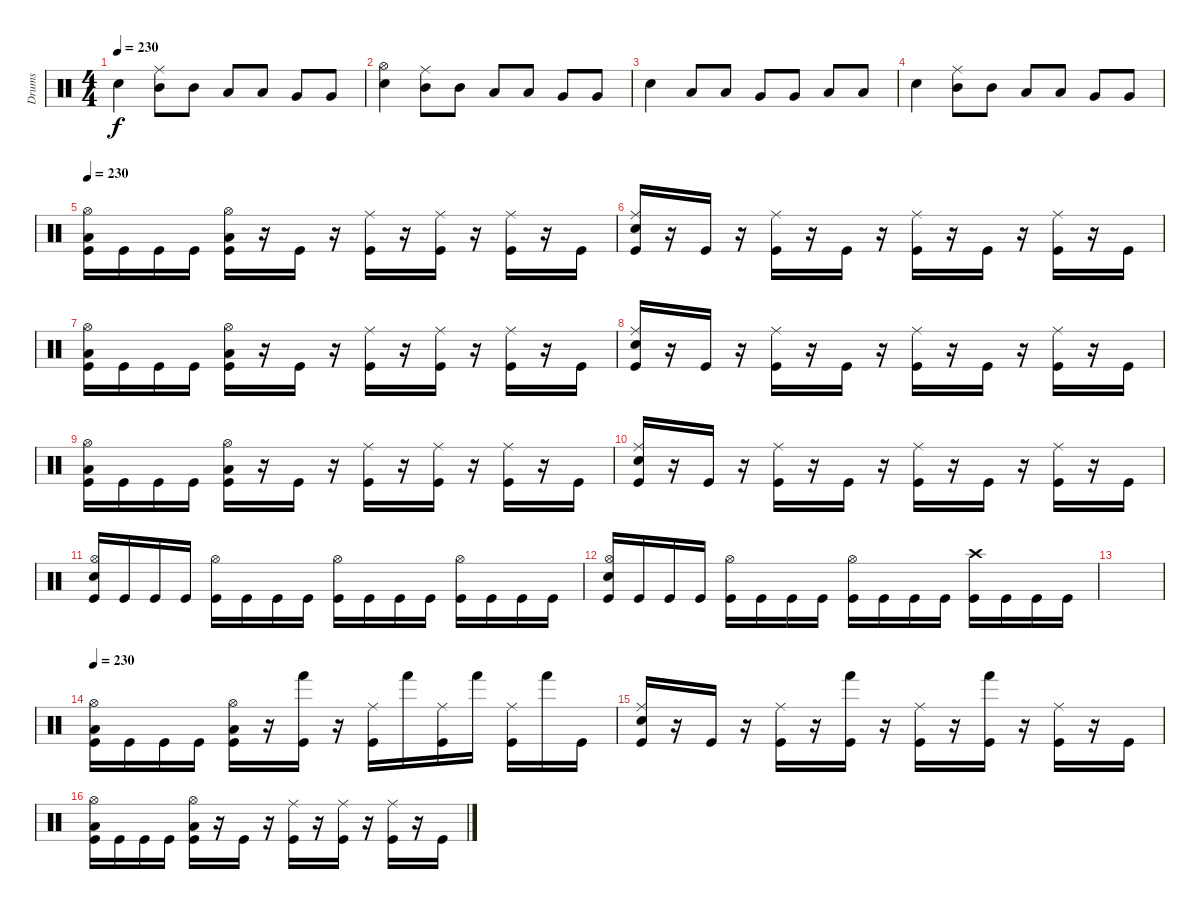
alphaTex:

\track ("Drums" "Drums") {instrument percussion}
\staff {score}
\articulation defaults
\ts (4 4)
\tempo 230
\clef neutral
\ks c "Electric Snare (hit)".4{dy f}
("Ride (middle)" "Mid Tom (hit)").8 "Mid Tom (hit)".8 "Low Tom (hit)".8 "Low Tom (hit)".8 "Very Low Tom (hit)".8 "Very Low Tom (hit)".8 |
("Hi-Hat (open)" "Electric Snare (hit)").4 ("Ride (middle)" "Mid Tom (hit)").8 "Mid Tom (hit)".8 "Low Tom (hit)".8 "Low Tom (hit)".8 "Very Low Tom (hit)".8 "Very Low Tom (hit)".8 |
"Electric Snare (hit)".4 "Low Tom (hit)".8 "Low Tom (hit)".8 "Very Low Tom (hit)".8 "Very Low Tom (hit)".8 "Low Floor Tom (hit)".8 "Low Floor Tom (hit)".8 |
"Electric Snare (hit)".4 ("Ride (middle)" "Mid Tom (hit)").8 "Mid Tom (hit)".8 "Low Tom (hit)".8 "Low Tom (hit)".8 "Very Low Tom (hit)".8 "Very Low Tom (hit)".8 |
\tempo 230
("Hi-Hat (open)" "Low Floor Tom (hit)" "Kick (hit)").16 "Kick (hit)".16 "Kick (hit)".16 "Kick (hit)".16 ("Hi-Hat (open)" "Low Floor Tom (hit)" "Kick (hit)").16 r.16 "Kick (hit)".16 r.16 ("Ride (middle)" "Kick (hit)").16 r.16 ("Ride (middle)" "Kick (hit)").16 r.16 ("Ride (middle)" "Kick (hit)").16 r.16 "Kick (hit)".16 |
("Ride (middle)" "Electric Snare (hit)" "Kick (hit)").16 r.16 "Kick (hit)".16 r.16 ("Ride (middle)" "Kick (hit)").16 r.16 "Kick (hit)".16 r.16 ("Ride (middle)" "Kick (hit)").16 r.16 "Kick (hit)".16 r.16 ("Ride (middle)" "Kick (hit)").16 r.16 "Kick (hit)".16 |
("Hi-Hat (open)" "Low Floor Tom (hit)" "Kick (hit)").16 "Kick (hit)".16 "Kick (hit)".16 "Kick (hit)".16 ("Hi-Hat (open)" "Low Floor Tom (hit)" "Kick (hit)").16 r.16 "Kick (hit)".16 r.16 ("Ride (middle)" "Kick (hit)").16 r.16 ("Ride (middle)" "Kick (hit)").16 r.16 ("Ride (middle)" "Kick (hit)").16 r.16 "Kick (hit)".16 |
("Ride (middle)" "Electric Snare (hit)" "Kick (hit)").16 r.16 "Kick (hit)".16 r.16 ("Ride (middle)" "Kick (hit)").16 r.16 "Kick (hit)".16 r.16 ("Ride (middle)" "Kick (hit)").16 r.16 "Kick (hit)".16 r.16 ("Ride (middle)" "Kick (hit)").16 r.16 "Kick (hit)".16 |
("Hi-Hat (open)" "Low Floor Tom (hit)" "Kick (hit)").16 "Kick (hit)".16 "Kick (hit)".16 "Kick (hit)".16 ("Hi-Hat (open)" "Low Floor Tom (hit)" "Kick (hit)").16 r.16 "Kick (hit)".16 r.16 ("Ride (middle)" "Kick (hit)").16 r.16 ("Ride (middle)" "Kick (hit)").16 r.16 ("Ride (middle)" "Kick (hit)").16 r.16 "Kick (hit)".16 |
("Ride (middle)" "Electric Snare (hit)" "Kick (hit)").16 r.16 "Kick (hit)".16 r.16 ("Ride (middle)" "Kick (hit)").16 r.16 "Kick (hit)".16 r.16 ("Ride (middle)" "Kick (hit)").16 r.16 "Kick (hit)".16 r.16 ("Ride (middle)" "Kick (hit)").16 r.16 "Kick (hit)".16 |
("Hi-Hat (open)" "Electric Snare (hit)" "Kick (hit)").16 "Kick (hit)".16 "Kick (hit)".16 "Kick (hit)".16 ("Hi-Hat (open)" "Kick (hit)").16 "Kick (hit)".16 "Kick (hit)".16 "Kick (hit)".16 ("Hi-Hat (open)" "Kick (hit)").16 "Kick (hit)".16 "Kick (hit)".16 "Kick (hit)".16 ("Hi-Hat (open)" "Kick (hit)").16 "Kick (hit)".16 "Kick (hit)".16 "Kick (hit)".16 |
("Hi-Hat (open)" "Electric Snare (hit)" "Kick (hit)").16 "Kick (hit)".16 "Kick (hit)".16 "Kick (hit)".16 ("Hi-Hat (open)" "Kick (hit)").16 "Kick (hit)".16 "Kick (hit)".16 "Kick (hit)".16 ("Hi-Hat (open)" "Kick (hit)").16 "Kick (hit)".16 "Kick (hit)".16 "Kick (hit)".16 ("Crash high (hit)" "Kick (hit)").16 "Kick (hit)".16 "Kick (hit)".16 "Kick (hit)".16 |
|
\tempo 230
("Hi-Hat (open)" "Low Floor Tom (hit)" "Kick (hit)").16 "Kick (hit)".16 "Kick (hit)".16 "Kick (hit)".16 ("Hi-Hat (open)" "Low Floor Tom (hit)" "Kick (hit)").16 r.16 ("Hand (hit)" "Kick (hit)").16 r.16 ("Ride (middle)" "Kick (hit)").16 "Hand (hit)".16 ("Ride (middle)" "Kick (hit)").16 "Hand (hit)".16 ("Ride (middle)" "Kick (hit)").16 "Hand (hit)".16 "Kick (hit)".16 |
("Ride (middle)" "Electric Snare (hit)" "Kick (hit)").16 r.16 "Kick (hit)".16 r.16 ("Ride (middle)" "Kick (hit)").16 r.16 ("Hand (hit)" "Kick (hit)").16 r.16 ("Ride (middle)" "Kick (hit)").16 r.16 ("Hand (hit)" "Kick (hit)").16 r.16 ("Ride (middle)" "Kick (hit)").16 r.16 "Kick (hit)".16 |
("Hi-Hat (open)" "Low Floor Tom (hit)" "Kick (hit)").16 "Kick (hit)".16 "Kick (hit)".16 "Kick (hit)".16 ("Hi-Hat (open)" "Low Floor Tom (hit)" "Kick (hit)").16 r.16 "Kick (hit)".16 r.16 ("Ride (middle)" "Kick (hit)").16 r.16 ("Ride (middle)" "Kick (hit)").16 r.16 ("Ride (middle)" "Kick (hit)").16 r.16 "Kick (hit)".16
